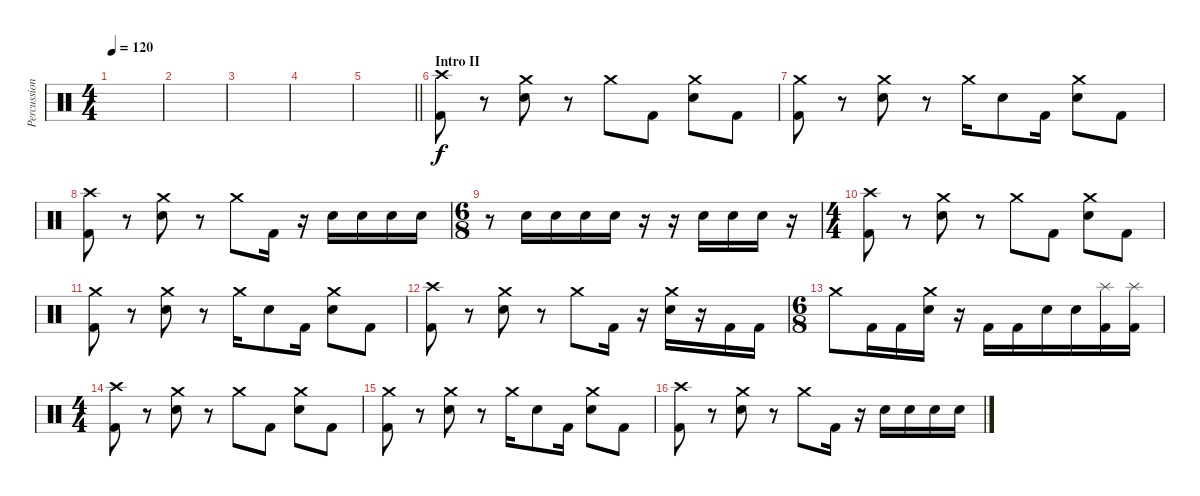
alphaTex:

\track ("Percussion" "Percussion") {instrument percussion}
\staff {score}
\articulation defaults
\ts (4 4)
\tempo 120
\clef neutral
\ks c
|
|
|
|
\barLineRight lightlight
|
\section ("" "Intro II")
("Crash high (hit)" "Kick (hit) 2").8 r.8 ("Crash medium (hit)" "Snare (hit) 2").8 r.8 "Crash medium (hit)".8 "Kick (hit) 2".8 ("Crash medium (hit)" "Snare (hit) 2").8 "Kick (hit) 2".8 |
("Crash medium (hit)" "Kick (hit) 2").8 r.8 ("Crash medium (hit)" "Snare (hit) 2").8 r.8 "Crash medium (hit)".16 "Snare (hit) 2".8 "Kick (hit) 2".16 ("Crash medium (hit)" "Snare (hit) 2").8 "Kick (hit) 2".8 |
("Crash high (hit)" "Kick (hit) 2").8 r.8 ("Crash medium (hit)" "Snare (hit) 2").8 r.8 "Crash medium (hit)".8 "Kick (hit) 2".16 r.16 "Snare (hit) 2".16 "Snare (hit) 2".16 "Snare (hit) 2".16 "Snare (hit) 2".16 |
\ts (6 8)
r.8 "Snare (hit) 2".16 "Snare (hit) 2".16 "Snare (hit) 2".16 "Snare (hit) 2".16 r.16 r.16 "Snare (hit) 2".16 "Snare (hit) 2".16 "Snare (hit) 2".16 r.16 |
\ts (4 4)
("Crash high (hit)" "Kick (hit) 2").8 r.8 ("Crash medium (hit)" "Snare (hit) 2").8 r.8 "Crash medium (hit)".8 "Kick (hit) 2".8 ("Crash medium (hit)" "Snare (hit) 2").8 "Kick (hit) 2".8 |
("Crash medium (hit)" "Kick (hit) 2").8 r.8 ("Crash medium (hit)" "Snare (hit) 2").8 r.8 "Crash medium (hit)".16 "Snare (hit) 2".8 "Kick (hit) 2".16 ("Crash medium (hit)" "Snare (hit) 2").8 "Kick (hit) 2".8 |
("Crash high (hit)" "Kick (hit) 2").8 r.8 ("Crash medium (hit)" "Snare (hit) 2").8 r.8 "Crash medium (hit)".8 "Kick (hit) 2".16 r.16 ("Crash medium (hit)" "Snare (hit) 2").16 r.16 "Kick (hit) 2".16 "Kick (hit) 2".16 |
\ts (6 8)
"Crash medium (hit)".8 "Kick (hit) 2".16 "Kick (hit) 2".16 ("Crash medium (hit)" "Snare (hit) 2").16 r.16 "Kick (hit) 2".16 "Kick (hit) 2".16 "Snare (hit) 2".16 "Snare (hit) 2".16 ("Splash (hit)" "Kick (hit) 2").16 ("Splash (hit)" "Kick (hit) 2").16 |
\ts (4 4)
("Crash high (hit)" "Kick (hit) 2").8 r.8 ("Crash medium (hit)" "Snare (hit) 2").8 r.8 "Crash medium (hit)".8 "Kick (hit) 2".8 ("Crash medium (hit)" "Snare (hit) 2").8 "Kick (hit) 2".8 |
("Crash medium (hit)" "Kick (hit) 2").8 r.8 ("Crash medium (hit)" "Snare (hit) 2").8 r.8 "Crash medium (hit)".16 "Snare (hit) 2".8 "Kick (hit) 2".16 ("Crash medium (hit)" "Snare (hit) 2").8 "Kick (hit) 2".8 |
("Crash high (hit)" "Kick (hit) 2").8 r.8 ("Crash medium (hit)" "Snare (hit) 2").8 r.8 "Crash medium (hit)".8 "Kick (hit) 2".16 r.16 "Snare (hit) 2".16 "Snare (hit) 2".16 "Snare (hit) 2".16 "Snare (hit) 2".16
